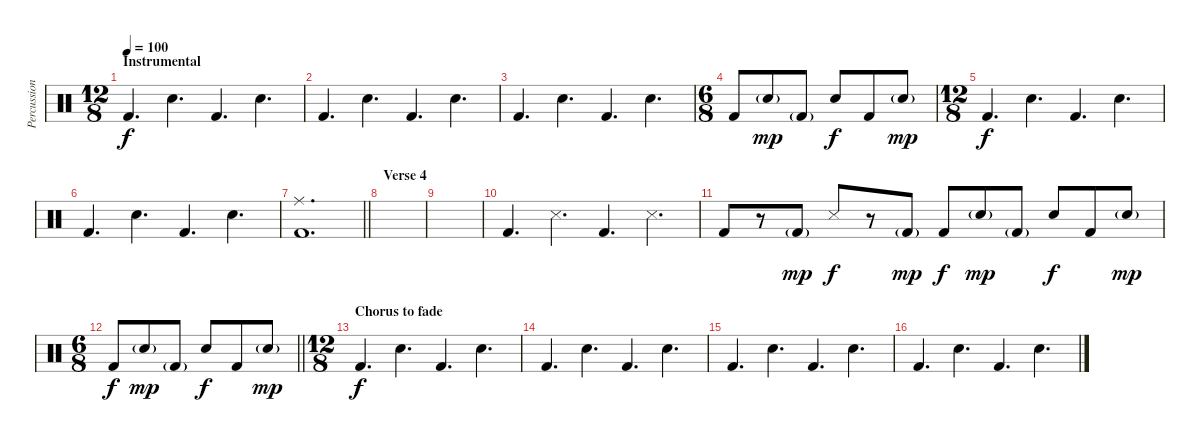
\track ("Percussion" "Percussion") {instrument percussion}
\staff {score}
\articulation defaults
\ts (12 8)
\section ("" "Instrumental")
\tempo 100
\clef neutral
\ks c "Kick (hit) 2".4{d dy f} "Snare (hit) 2".4{d} "Kick (hit) 2".4{d} "Snare (hit) 2".4{d}
|
"Kick (hit) 2".4{d} "Snare (hit) 2".4{d} "Kick (hit) 2".4{d} "Snare (hit) 2".4{d} |
"Kick (hit) 2".4{d} "Snare (hit) 2".4{d} "Kick (hit) 2".4{d} "Snare (hit) 2".4{d} |
\ts (6 8)
"Kick (hit) 2".8 "Snare (hit) 2"{g}.8{dy mp} "Kick (hit) 2"{g}.8 "Snare (hit) 2".8{dy f} "Kick (hit) 2".8 "Snare (hit) 2"{g}.8{dy mp} |
\ts (12 8)
"Kick (hit) 2".4{d dy f} "Snare (hit) 2".4{d} "Kick (hit) 2".4{d} "Snare (hit) 2".4{d} |
"Kick (hit) 2".4{d} "Snare (hit) 2".4{d} "Kick (hit) 2".4{d} "Snare (hit) 2".4{d} |
\barLineRight lightlight
("Ride (middle)" "Kick (hit) 2").1{d} |
\section ("" "Verse 4")
|
|
"Kick (hit) 2".4{d} "Snare (side stick) 3".4{d} "Kick (hit) 2".4{d} "Snare (side stick) 3".4{d} |
"Kick (hit) 2".8 r.8 "Kick (hit) 2"{g}.8{dy mp} "Snare (side stick) 3".8{dy f} r.8 "Kick (hit) 2"{g}.8{dy mp} "Kick (hit) 2".8{dy f} "Snare (hit) 2"{g}.8{dy mp} "Kick (hit) 2"{g}.8 "Snare (hit) 2".8{dy f} "Kick (hit) 2".8 "Snare (hit) 2"{g}.8{dy mp} |
\ts (6 8)
\barLineRight lightlight "Kick (hit) 2".8{dy f} "Snare (hit) 2"{g}.8{dy mp} "Kick (hit) 2"{g}.8 "Snare (hit) 2".8{dy f} "Kick (hit) 2".8 "Snare (hit) 2"{g}.8{dy mp}
|
\ts (12 8)
\section ("" "Chorus to fade")
"Kick (hit) 2".4{d dy f} "Snare (hit) 2".4{d} "Kick (hit) 2".4{d} "Snare (hit) 2".4{d} |
"Kick (hit) 2".4{d} "Snare (hit) 2".4{d} "Kick (hit) 2".4{d} "Snare (hit) 2".4{d} |
"Kick (hit) 2".4{d} "Snare (hit) 2".4{d} "Kick (hit) 2".4{d} "Snare (hit) 2".4{d} |
"Kick (hit) 2".4{d} "Snare (hit) 2".4{d} "Kick (hit) 2".4{d} "Snare (hit) 2".4{d}
